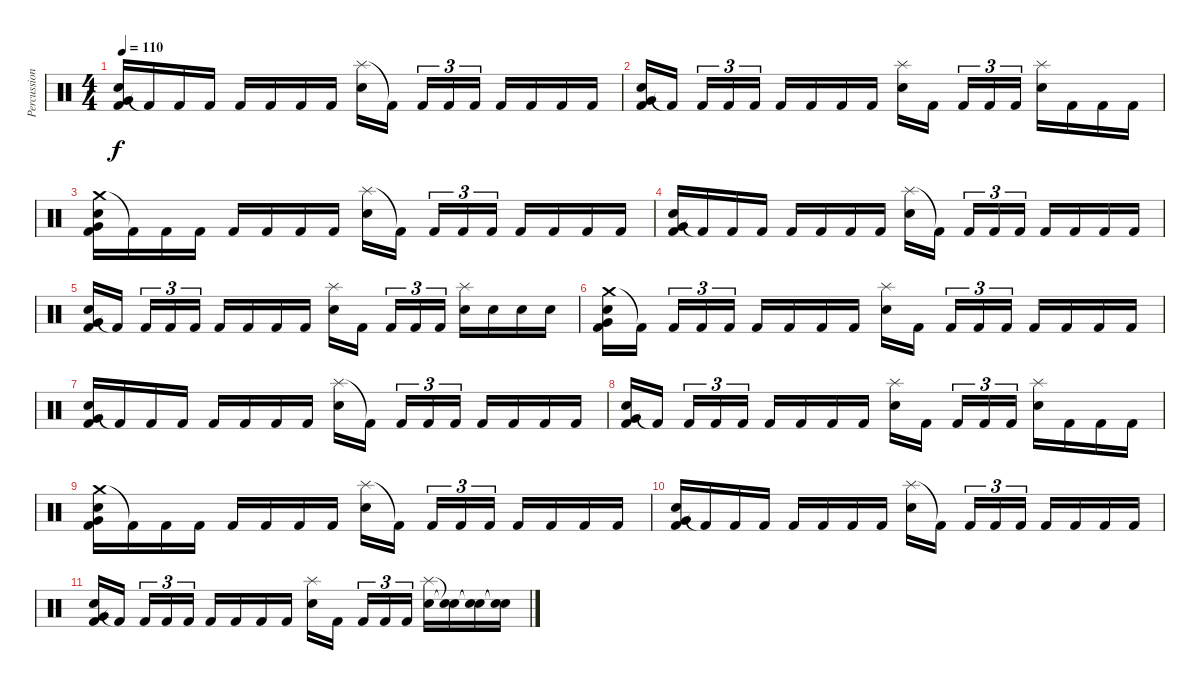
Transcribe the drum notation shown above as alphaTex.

\track ("Percussion" "Percussion") {instrument percussion}
\staff {score}
\articulation defaults
\ts (4 4)
\tempo 110
\clef neutral
\ks c
("Electric Snare (hit)" "Very Low Tom (hit)" "Kick (hit) 2").16{dy f} "Kick (hit) 2"{t}.16 "Kick (hit) 2".16 "Kick (hit) 2".16 "Kick (hit) 2".16 "Kick (hit) 2".16 "Kick (hit) 2".16 "Kick (hit) 2".16 ("Splash (hit)" "Electric Snare (hit)").16 "Kick (hit) 2"{t}.16 "Kick (hit) 2".16{tu (3 2)} "Kick (hit) 2".16{tu (3 2)} "Kick (hit) 2".16{tu (3 2)} "Kick (hit) 2".16 "Kick (hit) 2".16 "Kick (hit) 2".16 "Kick (hit) 2".16 |
("Electric Snare (hit)" "Very Low Tom (hit)" "Kick (hit) 2").16 "Kick (hit) 2"{t}.16 "Kick (hit) 2".16{tu (3 2)} "Kick (hit) 2".16{tu (3 2)} "Kick (hit) 2".16{tu (3 2)} "Kick (hit) 2".16 "Kick (hit) 2".16 "Kick (hit) 2".16 "Kick (hit) 2".16 ("Splash (hit)" "Electric Snare (hit)").16 "Kick (hit) 2".16 "Kick (hit) 2".16{tu (3 2)} "Kick (hit) 2".16{tu (3 2)} "Kick (hit) 2".16{tu (3 2)} ("Splash (hit)" "Electric Snare (hit)").16 "Kick (hit) 2".16 "Kick (hit) 2".16 "Kick (hit) 2".16 |
("Crash medium (hit)" "Electric Snare (hit)" "Very Low Tom (hit)" "Kick (hit) 2").16 "Kick (hit) 2"{t}.16 "Kick (hit) 2".16 "Kick (hit) 2".16 "Kick (hit) 2".16 "Kick (hit) 2".16 "Kick (hit) 2".16 "Kick (hit) 2".16 ("Splash (hit)" "Electric Snare (hit)").16 "Kick (hit) 2"{t}.16 "Kick (hit) 2".16{tu (3 2)} "Kick (hit) 2".16{tu (3 2)} "Kick (hit) 2".16{tu (3 2)} "Kick (hit) 2".16 "Kick (hit) 2".16 "Kick (hit) 2".16 "Kick (hit) 2".16 |
("Electric Snare (hit)" "Very Low Tom (hit)" "Kick (hit) 2").16 "Kick (hit) 2"{t}.16 "Kick (hit) 2".16 "Kick (hit) 2".16 "Kick (hit) 2".16 "Kick (hit) 2".16 "Kick (hit) 2".16 "Kick (hit) 2".16 ("Splash (hit)" "Electric Snare (hit)").16 "Kick (hit) 2"{t}.16 "Kick (hit) 2".16{tu (3 2)} "Kick (hit) 2".16{tu (3 2)} "Kick (hit) 2".16{tu (3 2)} "Kick (hit) 2".16 "Kick (hit) 2".16 "Kick (hit) 2".16 "Kick (hit) 2".16 |
("Electric Snare (hit)" "Very Low Tom (hit)" "Kick (hit) 2").16 "Kick (hit) 2"{t}.16 "Kick (hit) 2".16{tu (3 2)} "Kick (hit) 2".16{tu (3 2)} "Kick (hit) 2".16{tu (3 2)} "Kick (hit) 2".16 "Kick (hit) 2".16 "Kick (hit) 2".16 "Kick (hit) 2".16 ("Splash (hit)" "Electric Snare (hit)").16 "Kick (hit) 2".16 "Kick (hit) 2".16{tu (3 2)} "Kick (hit) 2".16{tu (3 2)} "Kick (hit) 2".16{tu (3 2)} ("Splash (hit)" "Electric Snare (hit)").16 "Electric Snare (hit)".16 "Electric Snare (hit)".16 "Electric Snare (hit)".16 |
("Crash medium (hit)" "Electric Snare (hit)" "Very Low Tom (hit)" "Kick (hit) 2").16 "Kick (hit) 2"{t}.16 "Kick (hit) 2".16{tu (3 2)} "Kick (hit) 2".16{tu (3 2)} "Kick (hit) 2".16{tu (3 2)} "Kick (hit) 2".16 "Kick (hit) 2".16 "Kick (hit) 2".16 "Kick (hit) 2".16 ("Splash (hit)" "Electric Snare (hit)").16 "Kick (hit) 2".16 "Kick (hit) 2".16{tu (3 2)} "Kick (hit) 2".16{tu (3 2)} "Kick (hit) 2".16{tu (3 2)} "Kick (hit) 2".16 "Kick (hit) 2".16 "Kick (hit) 2".16 "Kick (hit) 2".16 |
("Electric Snare (hit)" "Very Low Tom (hit)" "Kick (hit) 2").16 "Kick (hit) 2"{t}.16 "Kick (hit) 2".16 "Kick (hit) 2".16 "Kick (hit) 2".16 "Kick (hit) 2".16 "Kick (hit) 2".16 "Kick (hit) 2".16 ("Splash (hit)" "Electric Snare (hit)").16 "Kick (hit) 2"{t}.16 "Kick (hit) 2".16{tu (3 2)} "Kick (hit) 2".16{tu (3 2)} "Kick (hit) 2".16{tu (3 2)} "Kick (hit) 2".16 "Kick (hit) 2".16 "Kick (hit) 2".16 "Kick (hit) 2".16 |
("Electric Snare (hit)" "Very Low Tom (hit)" "Kick (hit) 2").16 "Kick (hit) 2"{t}.16 "Kick (hit) 2".16{tu (3 2)} "Kick (hit) 2".16{tu (3 2)} "Kick (hit) 2".16{tu (3 2)} "Kick (hit) 2".16 "Kick (hit) 2".16 "Kick (hit) 2".16 "Kick (hit) 2".16 ("Splash (hit)" "Electric Snare (hit)").16 "Kick (hit) 2".16 "Kick (hit) 2".16{tu (3 2)} "Kick (hit) 2".16{tu (3 2)} "Kick (hit) 2".16{tu (3 2)} ("Splash (hit)" "Electric Snare (hit)").16 "Kick (hit) 2".16 "Kick (hit) 2".16 "Kick (hit) 2".16 |
("Crash medium (hit)" "Electric Snare (hit)" "Very Low Tom (hit)" "Kick (hit) 2").16 "Kick (hit) 2"{t}.16 "Kick (hit) 2".16 "Kick (hit) 2".16 "Kick (hit) 2".16 "Kick (hit) 2".16 "Kick (hit) 2".16 "Kick (hit) 2".16 ("Splash (hit)" "Electric Snare (hit)").16 "Kick (hit) 2"{t}.16 "Kick (hit) 2".16{tu (3 2)} "Kick (hit) 2".16{tu (3 2)} "Kick (hit) 2".16{tu (3 2)} "Kick (hit) 2".16 "Kick (hit) 2".16 "Kick (hit) 2".16 "Kick (hit) 2".16 |
("Electric Snare (hit)" "Very Low Tom (hit)" "Kick (hit) 2").16 "Kick (hit) 2"{t}.16 "Kick (hit) 2".16 "Kick (hit) 2".16 "Kick (hit) 2".16 "Kick (hit) 2".16 "Kick (hit) 2".16 "Kick (hit) 2".16 ("Splash (hit)" "Electric Snare (hit)").16 "Kick (hit) 2"{t}.16 "Kick (hit) 2".16{tu (3 2)} "Kick (hit) 2".16{tu (3 2)} "Kick (hit) 2".16{tu (3 2)} "Kick (hit) 2".16 "Kick (hit) 2".16 "Kick (hit) 2".16 "Kick (hit) 2".16 |
("Electric Snare (hit)" "Very Low Tom (hit)" "Kick (hit) 2").16 "Kick (hit) 2"{t}.16 "Kick (hit) 2".16{tu (3 2)} "Kick (hit) 2".16{tu (3 2)} "Kick (hit) 2".16{tu (3 2)} "Kick (hit) 2".16 "Kick (hit) 2".16 "Kick (hit) 2".16 "Kick (hit) 2".16 ("Splash (hit)" "Electric Snare (hit)").16 "Kick (hit) 2".16 "Kick (hit) 2".16{tu (3 2)} "Kick (hit) 2".16{tu (3 2)} "Kick (hit) 2".16{tu (3 2)} ("Splash (hit)" "Electric Snare (hit)").16 ("Snare (hit)"{t} "Electric Snare (hit)"{t}).16 ("Snare (hit)"{t} "Electric Snare (hit)"{t}).16 ("Snare (hit)"{t} "Electric Snare (hit)"{t}).16
